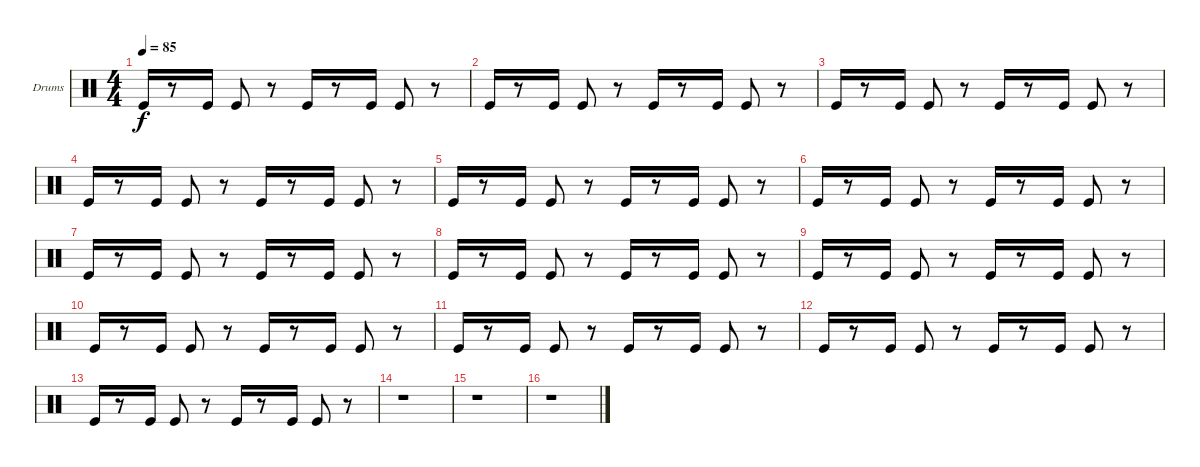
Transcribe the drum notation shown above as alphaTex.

\bracketExtendMode groupsimilarinstruments
\firstSystemTrackNameOrientation horizontal
\otherSystemsTrackNameOrientation horizontal
\track ("Drumkit" "Drums") {instrument percussion}
\staff {score}
\articulation defaults
\ts (4 4)
\tempo 85
\clef neutral
\ks c "Kick (hit)".16{dy f}
r.8 "Kick (hit)".16 "Kick (hit)".8 r.8 "Kick (hit)".16 r.8 "Kick (hit)".16 "Kick (hit)".8 r.8 |
"Kick (hit)".16 r.8 "Kick (hit)".16 "Kick (hit)".8 r.8 "Kick (hit)".16 r.8 "Kick (hit)".16 "Kick (hit)".8 r.8 |
"Kick (hit)".16 r.8 "Kick (hit)".16 "Kick (hit)".8 r.8 "Kick (hit)".16 r.8 "Kick (hit)".16 "Kick (hit)".8 r.8 |
"Kick (hit)".16 r.8 "Kick (hit)".16 "Kick (hit)".8 r.8 "Kick (hit)".16 r.8 "Kick (hit)".16 "Kick (hit)".8 r.8 |
"Kick (hit)".16 r.8 "Kick (hit)".16 "Kick (hit)".8 r.8 "Kick (hit)".16 r.8 "Kick (hit)".16 "Kick (hit)".8 r.8 |
"Kick (hit)".16 r.8 "Kick (hit)".16 "Kick (hit)".8 r.8 "Kick (hit)".16 r.8 "Kick (hit)".16 "Kick (hit)".8 r.8 |
"Kick (hit)".16 r.8 "Kick (hit)".16 "Kick (hit)".8 r.8 "Kick (hit)".16 r.8 "Kick (hit)".16 "Kick (hit)".8 r.8 |
"Kick (hit)".16 r.8 "Kick (hit)".16 "Kick (hit)".8 r.8 "Kick (hit)".16 r.8 "Kick (hit)".16 "Kick (hit)".8 r.8 |
"Kick (hit)".16 r.8 "Kick (hit)".16 "Kick (hit)".8 r.8 "Kick (hit)".16 r.8 "Kick (hit)".16 "Kick (hit)".8 r.8 |
"Kick (hit)".16 r.8 "Kick (hit)".16 "Kick (hit)".8 r.8 "Kick (hit)".16 r.8 "Kick (hit)".16 "Kick (hit)".8 r.8 |
"Kick (hit)".16 r.8 "Kick (hit)".16 "Kick (hit)".8 r.8 "Kick (hit)".16 r.8 "Kick (hit)".16 "Kick (hit)".8 r.8 |
"Kick (hit)".16 r.8 "Kick (hit)".16 "Kick (hit)".8 r.8 "Kick (hit)".16 r.8 "Kick (hit)".16 "Kick (hit)".8 r.8 |
"Kick (hit)".16 r.8 "Kick (hit)".16 "Kick (hit)".8 r.8 "Kick (hit)".16 r.8 "Kick (hit)".16 "Kick (hit)".8 r.8 |
r.1 |
r.1 |
r.1
